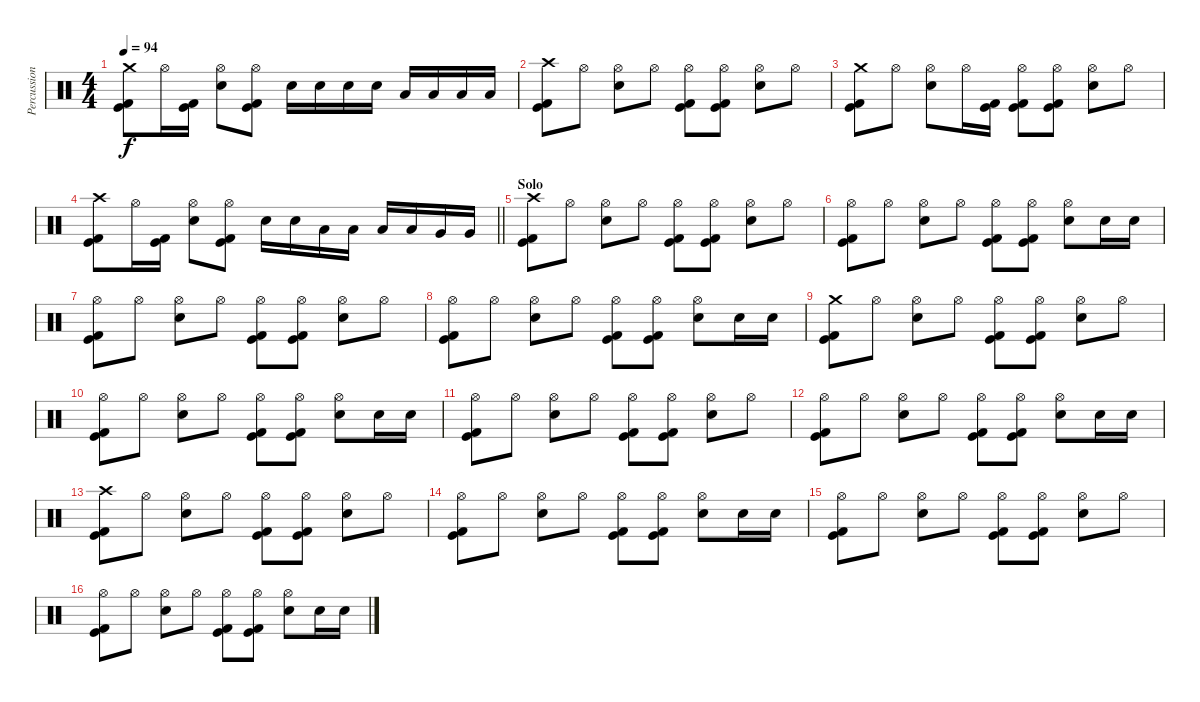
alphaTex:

\track ("Percussion" "Percussion") {instrument percussion}
\staff {score}
\articulation defaults
\ts (4 4)
\tempo 94
\clef neutral
\ks c
("Crash medium (hit)" "Kick (hit)" "Kick (hit) 2").8{dy f} "Hi-Hat (open)".16 ("Kick (hit)" "Kick (hit) 2").16 ("Hi-Hat (open)" "Electric Snare (hit)").8 ("Hi-Hat (open)" "Kick (hit)" "Kick (hit) 2").8 "Electric Snare (hit)".16 "Electric Snare (hit)".16 "Electric Snare (hit)".16 "Electric Snare (hit)".16 "Low Tom (hit)".16 "Low Tom (hit)".16 "Low Tom (hit)".16 "Low Tom (hit)".16 |
("Crash high (hit)" "Kick (hit)" "Kick (hit) 2").8 "Hi-Hat (open)".8 ("Hi-Hat (open)" "Electric Snare (hit)").8 "Hi-Hat (open)".8 ("Hi-Hat (open)" "Kick (hit)" "Kick (hit) 2").8 ("Hi-Hat (open)" "Kick (hit)" "Kick (hit) 2").8 ("Hi-Hat (open)" "Electric Snare (hit)").8 "Hi-Hat (open)".8 |
("Crash medium (hit)" "Kick (hit)" "Kick (hit) 2").8 "Hi-Hat (open)".8 ("Hi-Hat (open)" "Electric Snare (hit)").8 "Hi-Hat (open)".16 ("Kick (hit)" "Kick (hit) 2").16 ("Hi-Hat (open)" "Kick (hit)" "Kick (hit) 2").8 ("Hi-Hat (open)" "Kick (hit)" "Kick (hit) 2").8 ("Hi-Hat (open)" "Electric Snare (hit)").8 "Hi-Hat (open)".8 |
\barLineRight lightlight
("Crash high (hit)" "Kick (hit)" "Kick (hit) 2").8 "Hi-Hat (open)".16 ("Kick (hit)" "Kick (hit) 2").16 ("Hi-Hat (open)" "Electric Snare (hit)").8 ("Hi-Hat (open)" "Kick (hit)" "Kick (hit) 2").8 "Electric Snare (hit)".16 "Electric Snare (hit)".16 "Low Tom (hit)".16 "Low Tom (hit)".16 "Low Tom (hit)".16 "Low Tom (hit)".16 "Very Low Tom (hit)".16 "Very Low Tom (hit)".16 |
\section ("" "Solo")
("Crash high (hit)" "Kick (hit)" "Kick (hit) 2").8 "Hi-Hat (open)".8 ("Hi-Hat (open)" "Electric Snare (hit)").8 "Hi-Hat (open)".8 ("Hi-Hat (open)" "Kick (hit)" "Kick (hit) 2").8 ("Hi-Hat (open)" "Kick (hit)" "Kick (hit) 2").8 ("Hi-Hat (open)" "Electric Snare (hit)").8 "Hi-Hat (open)".8 |
("Hi-Hat (open)" "Kick (hit)" "Kick (hit) 2").8 "Hi-Hat (open)".8 ("Hi-Hat (open)" "Electric Snare (hit)").8 "Hi-Hat (open)".8 ("Hi-Hat (open)" "Kick (hit)" "Kick (hit) 2").8 ("Hi-Hat (open)" "Kick (hit)" "Kick (hit) 2").8 ("Hi-Hat (open)" "Electric Snare (hit)").8 "Electric Snare (hit)".16 "Electric Snare (hit)".16 |
("Hi-Hat (open)" "Kick (hit)" "Kick (hit) 2").8 "Hi-Hat (open)".8 ("Hi-Hat (open)" "Electric Snare (hit)").8 "Hi-Hat (open)".8 ("Hi-Hat (open)" "Kick (hit)" "Kick (hit) 2").8 ("Hi-Hat (open)" "Kick (hit)" "Kick (hit) 2").8 ("Hi-Hat (open)" "Electric Snare (hit)").8 "Hi-Hat (open)".8 |
("Hi-Hat (open)" "Kick (hit)" "Kick (hit) 2").8 "Hi-Hat (open)".8 ("Hi-Hat (open)" "Electric Snare (hit)").8 "Hi-Hat (open)".8 ("Hi-Hat (open)" "Kick (hit)" "Kick (hit) 2").8 ("Hi-Hat (open)" "Kick (hit)" "Kick (hit) 2").8 ("Hi-Hat (open)" "Electric Snare (hit)").8 "Electric Snare (hit)".16 "Electric Snare (hit)".16 |
("Crash medium (hit)" "Kick (hit)" "Kick (hit) 2").8 "Hi-Hat (open)".8 ("Hi-Hat (open)" "Electric Snare (hit)").8 "Hi-Hat (open)".8 ("Hi-Hat (open)" "Kick (hit)" "Kick (hit) 2").8 ("Hi-Hat (open)" "Kick (hit)" "Kick (hit) 2").8 ("Hi-Hat (open)" "Electric Snare (hit)").8 "Hi-Hat (open)".8 |
("Hi-Hat (open)" "Kick (hit)" "Kick (hit) 2").8 "Hi-Hat (open)".8 ("Hi-Hat (open)" "Electric Snare (hit)").8 "Hi-Hat (open)".8 ("Hi-Hat (open)" "Kick (hit)" "Kick (hit) 2").8 ("Hi-Hat (open)" "Kick (hit)" "Kick (hit) 2").8 ("Hi-Hat (open)" "Electric Snare (hit)").8 "Electric Snare (hit)".16 "Electric Snare (hit)".16 |
("Hi-Hat (open)" "Kick (hit)" "Kick (hit) 2").8 "Hi-Hat (open)".8 ("Hi-Hat (open)" "Electric Snare (hit)").8 "Hi-Hat (open)".8 ("Hi-Hat (open)" "Kick (hit)" "Kick (hit) 2").8 ("Hi-Hat (open)" "Kick (hit)" "Kick (hit) 2").8 ("Hi-Hat (open)" "Electric Snare (hit)").8 "Hi-Hat (open)".8 |
("Hi-Hat (open)" "Kick (hit)" "Kick (hit) 2").8 "Hi-Hat (open)".8 ("Hi-Hat (open)" "Electric Snare (hit)").8 "Hi-Hat (open)".8 ("Hi-Hat (open)" "Kick (hit)" "Kick (hit) 2").8 ("Hi-Hat (open)" "Kick (hit)" "Kick (hit) 2").8 ("Hi-Hat (open)" "Electric Snare (hit)").8 "Electric Snare (hit)".16 "Electric Snare (hit)".16 |
("Crash high (hit)" "Kick (hit)" "Kick (hit) 2").8 "Hi-Hat (open)".8 ("Hi-Hat (open)" "Electric Snare (hit)").8 "Hi-Hat (open)".8 ("Hi-Hat (open)" "Kick (hit)" "Kick (hit) 2").8 ("Hi-Hat (open)" "Kick (hit)" "Kick (hit) 2").8 ("Hi-Hat (open)" "Electric Snare (hit)").8 "Hi-Hat (open)".8 |
("Hi-Hat (open)" "Kick (hit)" "Kick (hit) 2").8 "Hi-Hat (open)".8 ("Hi-Hat (open)" "Electric Snare (hit)").8 "Hi-Hat (open)".8 ("Hi-Hat (open)" "Kick (hit)" "Kick (hit) 2").8 ("Hi-Hat (open)" "Kick (hit)" "Kick (hit) 2").8 ("Hi-Hat (open)" "Electric Snare (hit)").8 "Electric Snare (hit)".16 "Electric Snare (hit)".16 |
("Hi-Hat (open)" "Kick (hit)" "Kick (hit) 2").8 "Hi-Hat (open)".8 ("Hi-Hat (open)" "Electric Snare (hit)").8 "Hi-Hat (open)".8 ("Hi-Hat (open)" "Kick (hit)" "Kick (hit) 2").8 ("Hi-Hat (open)" "Kick (hit)" "Kick (hit) 2").8 ("Hi-Hat (open)" "Electric Snare (hit)").8 "Hi-Hat (open)".8 |
("Hi-Hat (open)" "Kick (hit)" "Kick (hit) 2").8 "Hi-Hat (open)".8 ("Hi-Hat (open)" "Electric Snare (hit)").8 "Hi-Hat (open)".8 ("Hi-Hat (open)" "Kick (hit)" "Kick (hit) 2").8 ("Hi-Hat (open)" "Kick (hit)" "Kick (hit) 2").8 ("Hi-Hat (open)" "Electric Snare (hit)").8 "Electric Snare (hit)".16 "Electric Snare (hit)".16
